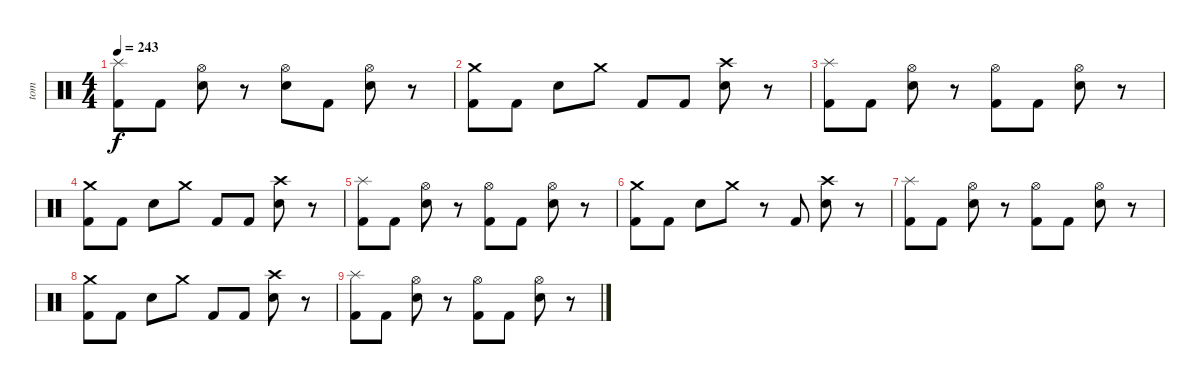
\track ("tom" "tom") {instrument percussion}
\staff {score}
\articulation defaults
\ts (4 4)
\tempo 243
\clef neutral
\ks c
("Splash (hit)" "Kick (hit) 2").8{dy f} "Kick (hit) 2".8 ("Hi-Hat (open)" "Electric Snare (hit)").8 r.8 ("Hi-Hat (open)" "Electric Snare (hit)").8 "Kick (hit) 2".8 ("Hi-Hat (open)" "Electric Snare (hit)").8 r.8 |
("Crash medium (hit)" "Kick (hit) 2").8 "Kick (hit) 2".8 "Electric Snare (hit)".8 "Crash medium (hit)".8 "Kick (hit) 2".8 "Kick (hit) 2".8 ("Crash high (hit)" "Electric Snare (hit)").8 r.8 |
("Splash (hit)" "Kick (hit) 2").8 "Kick (hit) 2".8 ("Hi-Hat (open)" "Electric Snare (hit)").8 r.8 ("Hi-Hat (open)" "Kick (hit) 2").8 "Kick (hit) 2".8 ("Hi-Hat (open)" "Electric Snare (hit)").8 r.8 |
("Crash medium (hit)" "Kick (hit) 2").8 "Kick (hit) 2".8 "Electric Snare (hit)".8 "Crash medium (hit)".8 "Kick (hit) 2".8 "Kick (hit) 2".8 ("Crash high (hit)" "Electric Snare (hit)").8 r.8 |
("Splash (hit)" "Kick (hit) 2").8 "Kick (hit) 2".8 ("Hi-Hat (open)" "Electric Snare (hit)").8 r.8 ("Hi-Hat (open)" "Kick (hit) 2").8 "Kick (hit) 2".8 ("Hi-Hat (open)" "Electric Snare (hit)").8 r.8 |
("Crash medium (hit)" "Kick (hit) 2").8 "Kick (hit) 2".8 "Electric Snare (hit)".8 "Crash medium (hit)".8 r.8 "Kick (hit) 2".8 ("Crash high (hit)" "Electric Snare (hit)").8 r.8 |
("Splash (hit)" "Kick (hit) 2").8 "Kick (hit) 2".8 ("Hi-Hat (open)" "Electric Snare (hit)").8 r.8 ("Hi-Hat (open)" "Kick (hit) 2").8 "Kick (hit) 2".8 ("Hi-Hat (open)" "Electric Snare (hit)").8 r.8 |
("Crash medium (hit)" "Kick (hit) 2").8 "Kick (hit) 2".8 "Electric Snare (hit)".8 "Crash medium (hit)".8 "Kick (hit) 2".8 "Kick (hit) 2".8 ("Crash high (hit)" "Electric Snare (hit)").8 r.8 |
("Splash (hit)" "Kick (hit) 2").8 "Kick (hit) 2".8 ("Hi-Hat (open)" "Electric Snare (hit)").8 r.8 ("Hi-Hat (open)" "Kick (hit) 2").8 "Kick (hit) 2".8 ("Hi-Hat (open)" "Electric Snare (hit)").8 r.8
